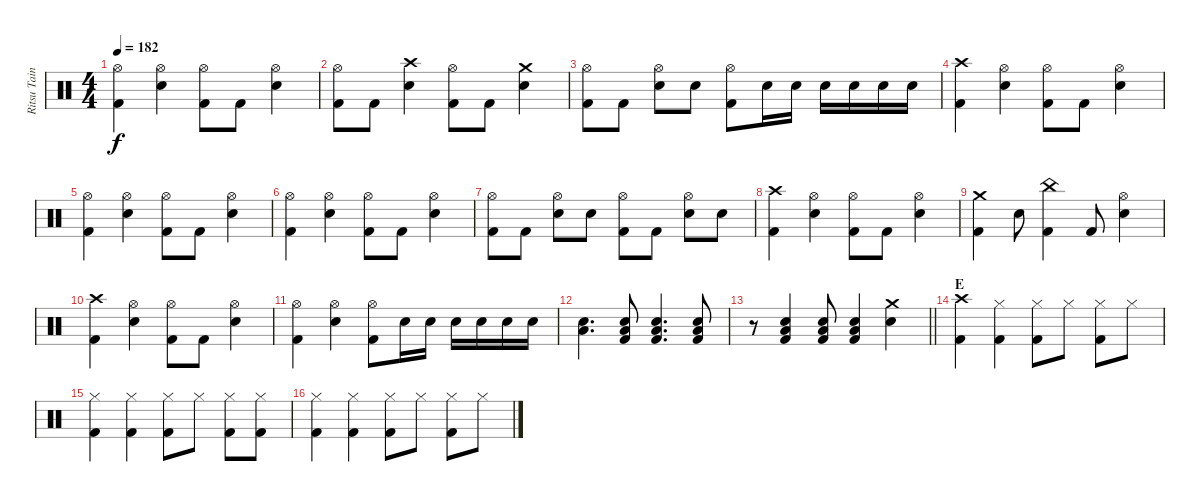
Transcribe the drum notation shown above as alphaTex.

\track ("Ritsu Tainaka" "Ritsu Tain") {instrument percussion}
\staff {score}
\articulation defaults
\ts (4 4)
\tempo 182
\clef neutral
\ks c
("Hi-Hat (open)" "Kick (hit) 2").4{dy f} ("Hi-Hat (open)" "Electric Snare (hit)").4 ("Hi-Hat (open)" "Kick (hit) 2").8 "Kick (hit) 2".8 ("Hi-Hat (open)" "Electric Snare (hit)").4 |
("Hi-Hat (open)" "Kick (hit) 2").8 "Kick (hit) 2".8 ("Crash high (hit)" "Electric Snare (hit)").4 ("Hi-Hat (open)" "Kick (hit) 2").8 "Kick (hit) 2".8 ("Crash medium (hit)" "Electric Snare (hit)").4 |
("Hi-Hat (open)" "Kick (hit) 2").8 "Kick (hit) 2".8 ("Hi-Hat (open)" "Electric Snare (hit)").8 "Electric Snare (hit)".8 ("Hi-Hat (open)" "Kick (hit) 2").8 "Electric Snare (hit)".16 "Electric Snare (hit)".16 "Electric Snare (hit)".16 "Electric Snare (hit)".16 "Electric Snare (hit)".16 "Electric Snare (hit)".16 |
("Crash high (hit)" "Kick (hit) 2").4 ("Hi-Hat (open)" "Electric Snare (hit)").4 ("Hi-Hat (open)" "Kick (hit) 2").8 "Kick (hit) 2".8 ("Hi-Hat (open)" "Electric Snare (hit)").4 |
("Hi-Hat (open)" "Kick (hit) 2").4 ("Hi-Hat (open)" "Electric Snare (hit)").4 ("Hi-Hat (open)" "Kick (hit) 2").8 "Kick (hit) 2".8 ("Hi-Hat (open)" "Electric Snare (hit)").4 |
("Hi-Hat (open)" "Kick (hit) 2").4 ("Hi-Hat (open)" "Electric Snare (hit)").4 ("Hi-Hat (open)" "Kick (hit) 2").8 "Kick (hit) 2".8 ("Hi-Hat (open)" "Electric Snare (hit)").4 |
("Hi-Hat (open)" "Kick (hit) 2").8 "Kick (hit) 2".8 ("Hi-Hat (open)" "Electric Snare (hit)").8 "Electric Snare (hit)".8 ("Hi-Hat (open)" "Kick (hit) 2").8 "Kick (hit) 2".8 ("Hi-Hat (open)" "Electric Snare (hit)").8 "Electric Snare (hit)".8 |
("Crash high (hit)" "Kick (hit) 2").4 ("Hi-Hat (open)" "Electric Snare (hit)").4 ("Hi-Hat (open)" "Kick (hit) 2").8 "Kick (hit) 2".8 ("Hi-Hat (open)" "Electric Snare (hit)").4 |
("Crash medium (hit)" "Kick (hit) 2").4 "Electric Snare (hit)".8 ("China (hit)" "Kick (hit) 2").4 "Kick (hit) 2".8 ("Hi-Hat (open)" "Electric Snare (hit)").4 |
("Crash high (hit)" "Kick (hit) 2").4 ("Hi-Hat (open)" "Electric Snare (hit)").4 ("Hi-Hat (open)" "Kick (hit) 2").8 "Kick (hit) 2".8 ("Hi-Hat (open)" "Electric Snare (hit)").4 |
("Hi-Hat (open)" "Kick (hit) 2").4 ("Hi-Hat (open)" "Electric Snare (hit)").4 ("Hi-Hat (open)" "Kick (hit) 2").8 "Electric Snare (hit)".16 "Electric Snare (hit)".16 "Electric Snare (hit)".16 "Electric Snare (hit)".16 "Electric Snare (hit)".16 "Electric Snare (hit)".16 |
("Electric Snare (hit)" "Low Floor Tom (hit)").4{d} ("Electric Snare (hit)" "Low Floor Tom (hit)" "Kick (hit) 2").8 ("Electric Snare (hit)" "Low Floor Tom (hit)" "Kick (hit) 2").4{d} ("Electric Snare (hit)" "Low Floor Tom (hit)" "Kick (hit) 2").8 |
\barLineRight lightlight
r.8 ("Electric Snare (hit)" "Low Floor Tom (hit)" "Kick (hit) 2").4 ("Electric Snare (hit)" "Low Floor Tom (hit)" "Kick (hit) 2").8 ("Electric Snare (hit)" "Low Floor Tom (hit)" "Kick (hit) 2").4 ("Crash medium (hit)" "Electric Snare (hit)").4 |
\section ("" "E")
("Crash high (hit)" "Kick (hit) 2").4 ("Hi-Hat (closed)" "Kick (hit) 2").4 ("Hi-Hat (closed)" "Kick (hit) 2").8 "Hi-Hat (closed)".8 ("Hi-Hat (closed)" "Kick (hit) 2").8 "Hi-Hat (closed)".8 |
("Hi-Hat (closed)" "Kick (hit) 2").4 ("Hi-Hat (closed)" "Kick (hit) 2").4 ("Hi-Hat (closed)" "Kick (hit) 2").8 "Hi-Hat (closed)".8 ("Hi-Hat (closed)" "Kick (hit) 2").8 ("Hi-Hat (closed)" "Kick (hit) 2").8 |
("Hi-Hat (closed)" "Kick (hit) 2").4 ("Hi-Hat (closed)" "Kick (hit) 2").4 ("Hi-Hat (closed)" "Kick (hit) 2").8 "Hi-Hat (closed)".8 ("Hi-Hat (closed)" "Kick (hit) 2").8 "Hi-Hat (closed)".8
